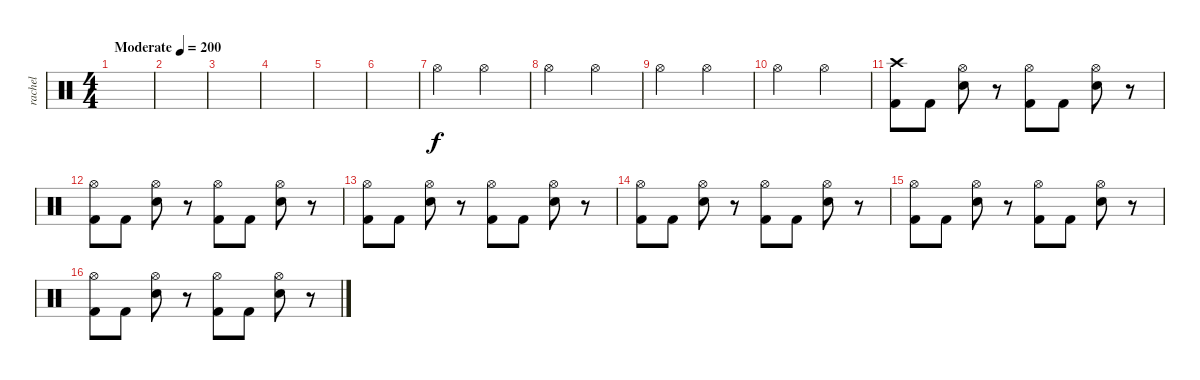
\track ("rachel" "rachel") {instrument percussion}
\staff {score}
\articulation defaults
\ts (4 4)
\tempo (200 "Moderate")
\clef neutral
\ks c
|
|
|
|
|
|
"Hi-Hat (open)".2 "Hi-Hat (open)".2 |
"Hi-Hat (open)".2 "Hi-Hat (open)".2 |
"Hi-Hat (open)".2 "Hi-Hat (open)".2 |
"Hi-Hat (open)".2 "Hi-Hat (open)".2 |
("Crash high (hit)" "Kick (hit) 2").8 "Kick (hit) 2".8 ("Hi-Hat (open)" "Electric Snare (hit)").8 r.8 ("Hi-Hat (open)" "Kick (hit) 2").8 "Kick (hit) 2".8 ("Hi-Hat (open)" "Electric Snare (hit)").8 r.8 |
("Hi-Hat (open)" "Kick (hit) 2").8 "Kick (hit) 2".8 ("Hi-Hat (open)" "Electric Snare (hit)").8 r.8 ("Hi-Hat (open)" "Kick (hit) 2").8 "Kick (hit) 2".8 ("Hi-Hat (open)" "Electric Snare (hit)").8 r.8 |
("Hi-Hat (open)" "Kick (hit) 2").8 "Kick (hit) 2".8 ("Hi-Hat (open)" "Electric Snare (hit)").8 r.8 ("Hi-Hat (open)" "Kick (hit) 2").8 "Kick (hit) 2".8 ("Hi-Hat (open)" "Electric Snare (hit)").8 r.8 |
("Hi-Hat (open)" "Kick (hit) 2").8 "Kick (hit) 2".8 ("Hi-Hat (open)" "Electric Snare (hit)").8 r.8 ("Hi-Hat (open)" "Kick (hit) 2").8 "Kick (hit) 2".8 ("Hi-Hat (open)" "Electric Snare (hit)").8 r.8 |
("Hi-Hat (open)" "Kick (hit) 2").8 "Kick (hit) 2".8 ("Hi-Hat (open)" "Electric Snare (hit)").8 r.8 ("Hi-Hat (open)" "Kick (hit) 2").8 "Kick (hit) 2".8 ("Hi-Hat (open)" "Electric Snare (hit)").8 r.8 |
("Hi-Hat (open)" "Kick (hit) 2").8 "Kick (hit) 2".8 ("Hi-Hat (open)" "Electric Snare (hit)").8 r.8 ("Hi-Hat (open)" "Kick (hit) 2").8 "Kick (hit) 2".8 ("Hi-Hat (open)" "Electric Snare (hit)").8 r.8
